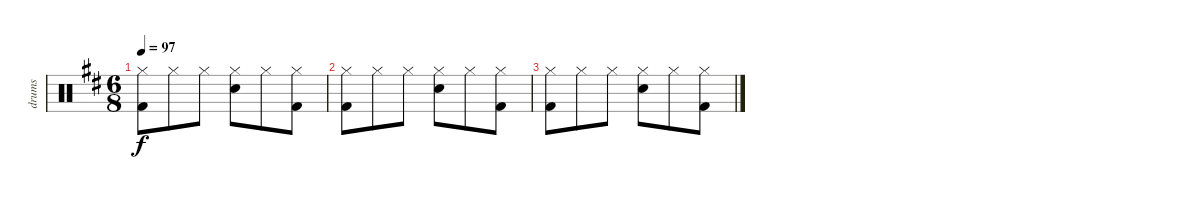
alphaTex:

\track ("drums" "drums") {instrument percussion}
\staff {score}
\articulation defaults
\ts (6 8)
\tempo 97
\clef neutral
\ks d
("Hi-Hat (closed)" "Kick (hit) 2").8{dy f} "Hi-Hat (closed)".8 "Hi-Hat (closed)".8 ("Hi-Hat (closed)" "Electric Snare (hit)").8 "Hi-Hat (closed)".8 ("Hi-Hat (closed)" "Kick (hit) 2").8 |
("Hi-Hat (closed)" "Kick (hit) 2").8 "Hi-Hat (closed)".8 "Hi-Hat (closed)".8 ("Hi-Hat (closed)" "Electric Snare (hit)").8 "Hi-Hat (closed)".8 ("Hi-Hat (closed)" "Kick (hit) 2").8 |
("Hi-Hat (closed)" "Kick (hit) 2").8 "Hi-Hat (closed)".8 "Hi-Hat (closed)".8 ("Hi-Hat (closed)" "Electric Snare (hit)").8 "Hi-Hat (closed)".8 ("Hi-Hat (closed)" "Kick (hit) 2").8
